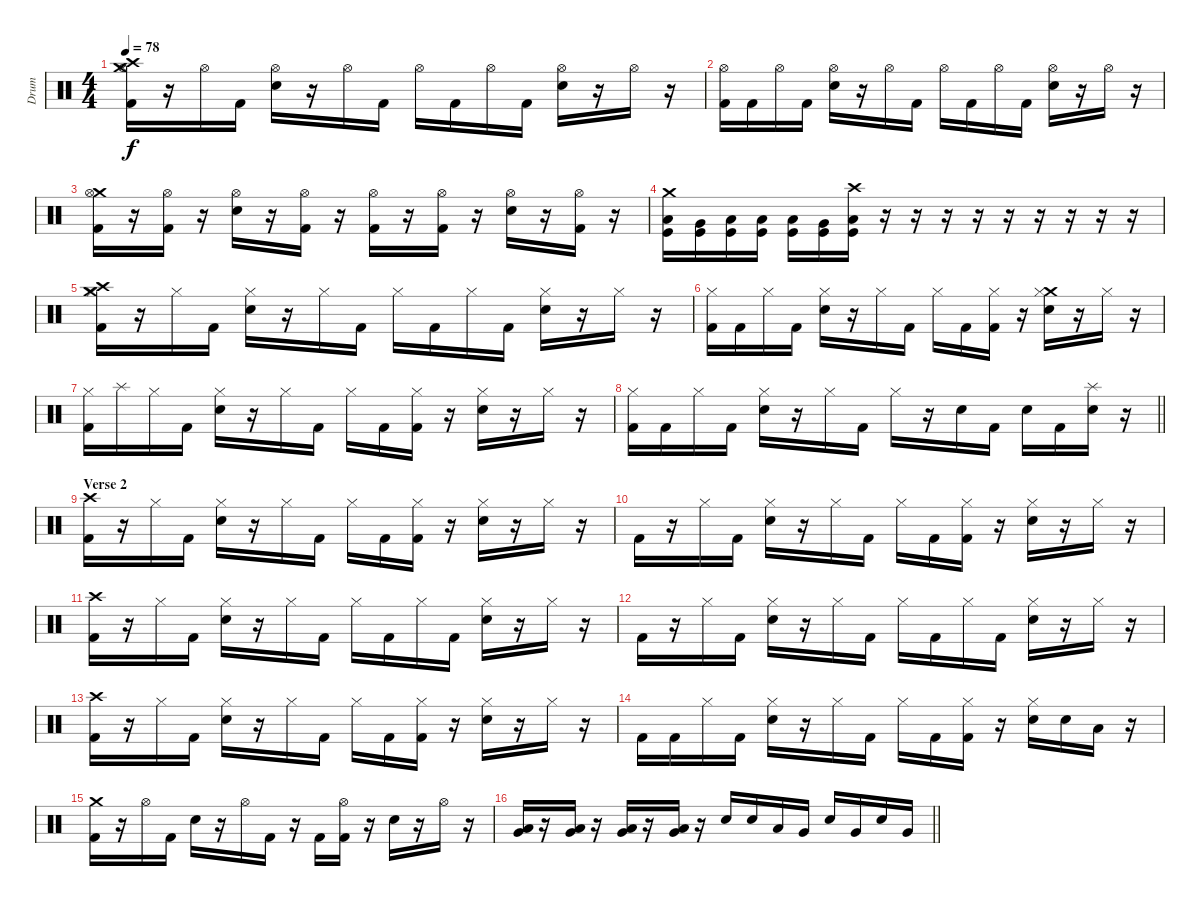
\track ("Drum" "Drum") {instrument percussion}
\staff {score}
\articulation defaults
\ts (4 4)
\tempo 78
\clef neutral
\ks c
("Crash high (hit)" "Crash medium (hit)" "Kick (hit) 2" "Hi-Hat (open)").16{dy f} r.16 "Hi-Hat (open)".16 "Kick (hit) 2".16 ("Electric Snare (hit)" "Hi-Hat (open)").16 r.16 "Hi-Hat (open)".16 "Kick (hit) 2".16 "Hi-Hat (open)".16 "Kick (hit) 2".16 "Hi-Hat (open)".16 "Kick (hit) 2".16 ("Electric Snare (hit)" "Hi-Hat (open)").16 r.16 "Hi-Hat (open)".16 r.16 |
("Kick (hit) 2" "Hi-Hat (open)").16 "Kick (hit) 2".16 "Hi-Hat (open)".16 "Kick (hit) 2".16 ("Electric Snare (hit)" "Hi-Hat (open)").16 r.16 "Hi-Hat (open)".16 "Kick (hit) 2".16 "Hi-Hat (open)".16 "Kick (hit) 2".16 "Hi-Hat (open)".16 "Kick (hit) 2".16 ("Electric Snare (hit)" "Hi-Hat (open)").16 r.16 "Hi-Hat (open)".16 r.16 |
("Crash medium (hit)" "Kick (hit) 2" "Hi-Hat (open)").16 r.16 ("Kick (hit) 2" "Hi-Hat (open)").16 r.16 ("Electric Snare (hit)" "Hi-Hat (open)").16 r.16 ("Kick (hit) 2" "Hi-Hat (open)").16 r.16 ("Kick (hit) 2" "Hi-Hat (open)").16 r.16 ("Kick (hit) 2" "Hi-Hat (open)").16 r.16 ("Electric Snare (hit)" "Hi-Hat (open)").16 r.16 ("Kick (hit) 2" "Hi-Hat (open)").16 r.16 |
("Crash medium (hit)" "Low Tom (hit)" "Kick (hit)").16 ("Very Low Tom (hit)" "Kick (hit)").16 ("Low Floor Tom (hit)" "Kick (hit)").16 ("Low Tom (hit)" "Kick (hit)").16 ("Low Tom (hit)" "Kick (hit)").16 ("Very Low Tom (hit)" "Kick (hit)").16 ("Crash high (hit)" "Low Floor Tom (hit)" "Kick (hit)").16 r.16 r.16 r.16 r.16 r.16 r.16 r.16 r.16 r.16 |
("Crash high (hit)" "Crash medium (hit)" "Kick (hit) 2" "Hi-Hat (closed)").16 r.16 "Hi-Hat (closed)".16 "Kick (hit) 2".16 ("Electric Snare (hit)" "Hi-Hat (closed)").16 r.16 "Hi-Hat (closed)".16 "Kick (hit) 2".16 "Hi-Hat (closed)".16 "Kick (hit) 2".16 "Hi-Hat (closed)".16 "Kick (hit) 2".16 ("Electric Snare (hit)" "Hi-Hat (closed)").16 r.16 "Hi-Hat (closed)".16 r.16 |
("Kick (hit) 2" "Hi-Hat (closed)").16 "Kick (hit) 2".16 "Hi-Hat (closed)".16 "Kick (hit) 2".16 ("Electric Snare (hit)" "Hi-Hat (closed)").16 r.16 "Hi-Hat (closed)".16 "Kick (hit) 2".16 "Hi-Hat (closed)".16 "Kick (hit) 2".16 ("Kick (hit) 2" "Hi-Hat (closed)").16 r.16 ("Crash medium (hit)" "Electric Snare (hit)" "Hi-Hat (closed)").16 r.16 "Hi-Hat (closed)".16 r.16 |
("Kick (hit) 2" "Hi-Hat (closed)").16 "Splash (hit)".16 "Hi-Hat (closed)".16 "Kick (hit) 2".16 ("Electric Snare (hit)" "Hi-Hat (closed)").16 r.16 "Hi-Hat (closed)".16 "Kick (hit) 2".16 "Hi-Hat (closed)".16 "Kick (hit) 2".16 ("Kick (hit) 2" "Hi-Hat (closed)").16 r.16 ("Electric Snare (hit)" "Hi-Hat (closed)").16 r.16 "Hi-Hat (closed)".16 r.16 |
\barLineRight lightlight
("Kick (hit) 2" "Hi-Hat (closed)").16 "Kick (hit) 2".16 "Hi-Hat (closed)".16 "Kick (hit) 2".16 ("Electric Snare (hit)" "Hi-Hat (closed)").16 r.16 "Hi-Hat (closed)".16 "Kick (hit) 2".16 "Hi-Hat (closed)".16 r.16 "Electric Snare (hit)".16 "Kick (hit) 2".16 "Electric Snare (hit)".16 "Kick (hit) 2".16 ("Splash (hit)" "Electric Snare (hit)").16 r.16 |
\section ("" "Verse 2")
("Crash high (hit)" "Kick (hit) 2").16 r.16 "Hi-Hat (closed)".16 "Kick (hit) 2".16 ("Electric Snare (hit)" "Hi-Hat (closed)").16 r.16 "Hi-Hat (closed)".16 "Kick (hit) 2".16 "Hi-Hat (closed)".16 "Kick (hit) 2".16 ("Kick (hit) 2" "Hi-Hat (closed)").16 r.16 ("Electric Snare (hit)" "Hi-Hat (closed)").16 r.16 "Hi-Hat (closed)".16 r.16 |
"Kick (hit) 2".16 r.16 "Hi-Hat (closed)".16 "Kick (hit) 2".16 ("Electric Snare (hit)" "Hi-Hat (closed)").16 r.16 "Hi-Hat (closed)".16 "Kick (hit) 2".16 "Hi-Hat (closed)".16 "Kick (hit) 2".16 ("Kick (hit) 2" "Hi-Hat (closed)").16 r.16 ("Electric Snare (hit)" "Hi-Hat (closed)").16 r.16 "Hi-Hat (closed)".16 r.16 |
("Crash high (hit)" "Kick (hit) 2").16 r.16 "Hi-Hat (closed)".16 "Kick (hit) 2".16 ("Electric Snare (hit)" "Hi-Hat (closed)").16 r.16 "Hi-Hat (closed)".16 "Kick (hit) 2".16 "Hi-Hat (closed)".16 "Kick (hit) 2".16 "Hi-Hat (closed)".16 "Kick (hit) 2".16 ("Electric Snare (hit)" "Hi-Hat (closed)").16 r.16 "Hi-Hat (closed)".16 r.16 |
"Kick (hit) 2".16 r.16 "Hi-Hat (closed)".16 "Kick (hit) 2".16 ("Electric Snare (hit)" "Hi-Hat (closed)").16 r.16 "Hi-Hat (closed)".16 "Kick (hit) 2".16 "Hi-Hat (closed)".16 "Kick (hit) 2".16 "Hi-Hat (closed)".16 "Kick (hit) 2".16 ("Electric Snare (hit)" "Hi-Hat (closed)").16 r.16 "Hi-Hat (closed)".16 r.16 |
("Crash high (hit)" "Kick (hit) 2").16 r.16 "Hi-Hat (closed)".16 "Kick (hit) 2".16 ("Electric Snare (hit)" "Hi-Hat (closed)").16 r.16 "Hi-Hat (closed)".16 "Kick (hit) 2".16 "Hi-Hat (closed)".16 "Kick (hit) 2".16 ("Kick (hit) 2" "Hi-Hat (closed)").16 r.16 ("Electric Snare (hit)" "Hi-Hat (closed)").16 r.16 "Hi-Hat (closed)".16 r.16 |
"Kick (hit) 2".16 "Kick (hit) 2".16 "Hi-Hat (closed)".16 "Kick (hit) 2".16 ("Electric Snare (hit)" "Hi-Hat (closed)").16 r.16 "Hi-Hat (closed)".16 "Kick (hit) 2".16 "Hi-Hat (closed)".16 "Kick (hit) 2".16 ("Kick (hit) 2" "Hi-Hat (closed)").16 r.16 ("Electric Snare (hit)" "Hi-Hat (closed)").16 "Electric Snare (hit)".16 "Low Tom (hit)".16 r.16 |
("Crash medium (hit)" "Kick (hit) 2").16 r.16 "Hi-Hat (open)".16 "Kick (hit) 2".16 "Electric Snare (hit)".16 r.16 "Hi-Hat (open)".16 "Kick (hit) 2".16 r.16 "Kick (hit) 2".16 ("Hi-Hat (open)" "Kick (hit) 2").16 r.16 "Electric Snare (hit)".16 r.16 "Hi-Hat (open)".16 r.16 |
\barLineRight lightlight
("Very Low Tom (hit)" "Low Floor Tom (hit)").16 r.16 ("Very Low Tom (hit)" "Low Floor Tom (hit)").16 r.16 ("Very Low Tom (hit)" "Low Floor Tom (hit)").16 r.16 ("Very Low Tom (hit)" "Low Floor Tom (hit)").16 r.16 "Electric Snare (hit)".16 "Electric Snare (hit)".16 "Low Tom (hit)".16 "Very Low Tom (hit)".16 "Electric Snare (hit)".16 "Very Low Tom (hit)".16 "Electric Snare (hit)".16 "Very Low Tom (hit)".16
